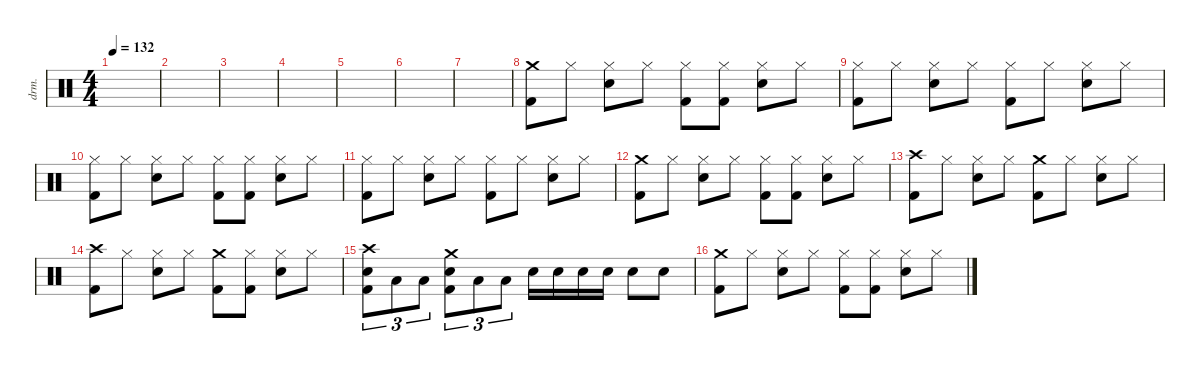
\defaultSystemsLayout 4
\hideDynamics
\bracketExtendMode nobrackets
\track ("敲击乐器" "drm.") {instrument percussion}
\staff {score}
\articulation defaults
\ts (4 4)
\tempo 132
\clef neutral
\ks c
|
|
|
|
|
|
|
("Crash medium (hit)" "Kick (hit) 2").8 "Hi-Hat (closed)".8 ("Hi-Hat (closed)" "Snare (hit) 2").8 "Hi-Hat (closed)".8 ("Hi-Hat (closed)" "Kick (hit) 2").8 ("Hi-Hat (closed)" "Kick (hit) 2").8 ("Hi-Hat (closed)" "Snare (hit) 2").8 "Hi-Hat (closed)".8 |
("Hi-Hat (closed)" "Kick (hit) 2").8 "Hi-Hat (closed)".8 ("Hi-Hat (closed)" "Snare (hit) 2").8 "Hi-Hat (closed)".8 ("Hi-Hat (closed)" "Kick (hit) 2").8 "Hi-Hat (closed)".8 ("Hi-Hat (closed)" "Snare (hit) 2").8 "Hi-Hat (closed)".8 |
("Hi-Hat (closed)" "Kick (hit) 2").8 "Hi-Hat (closed)".8 ("Hi-Hat (closed)" "Snare (hit) 2").8 "Hi-Hat (closed)".8 ("Hi-Hat (closed)" "Kick (hit) 2").8 ("Hi-Hat (closed)" "Kick (hit) 2").8 ("Hi-Hat (closed)" "Snare (hit) 2").8 "Hi-Hat (closed)".8 |
("Hi-Hat (closed)" "Kick (hit) 2").8 "Hi-Hat (closed)".8 ("Hi-Hat (closed)" "Snare (hit) 2").8 "Hi-Hat (closed)".8 ("Hi-Hat (closed)" "Kick (hit) 2").8 "Hi-Hat (closed)".8 ("Hi-Hat (closed)" "Snare (hit) 2").8 "Hi-Hat (closed)".8 |
("Crash medium (hit)" "Kick (hit) 2").8 "Hi-Hat (closed)".8 ("Hi-Hat (closed)" "Snare (hit) 2").8 "Hi-Hat (closed)".8 ("Hi-Hat (closed)" "Kick (hit) 2").8 ("Hi-Hat (closed)" "Kick (hit) 2").8 ("Hi-Hat (closed)" "Snare (hit) 2").8 "Hi-Hat (closed)".8 |
("Crash high (hit)" "Kick (hit) 2").8 "Hi-Hat (closed)".8 ("Hi-Hat (closed)" "Snare (hit) 2").8 "Hi-Hat (closed)".8 ("Crash medium (hit)" "Kick (hit) 2").8 "Hi-Hat (closed)".8 ("Hi-Hat (closed)" "Snare (hit) 2").8 "Hi-Hat (closed)".8 |
("Crash high (hit)" "Kick (hit) 2").8 "Hi-Hat (closed)".8 ("Hi-Hat (closed)" "Snare (hit) 2").8 "Hi-Hat (closed)".8 ("Crash medium (hit)" "Kick (hit) 2").8 ("Hi-Hat (closed)" "Kick (hit) 2").8 ("Hi-Hat (closed)" "Snare (hit) 2").8 "Hi-Hat (closed)".8 |
("Crash high (hit)" "Snare (hit) 2" "Kick (hit) 2").8{tu (3 2)} "Low Tom (hit)".8{tu (3 2)} "Low Tom (hit)".8{tu (3 2)} ("Crash medium (hit)" "Snare (hit) 2" "Kick (hit) 2").8{tu (3 2)} "Low Floor Tom (hit)".8{tu (3 2)} "Low Floor Tom (hit)".8{tu (3 2)} "Snare (hit) 2".16 "Snare (hit) 2".16 "Snare (hit) 2".16 "Snare (hit) 2".16 "Snare (hit) 2".8 "Snare (hit) 2".8 |
("Crash medium (hit)" "Kick (hit) 2").8 "Hi-Hat (closed)".8 ("Hi-Hat (closed)" "Snare (hit) 2").8 "Hi-Hat (closed)".8 ("Hi-Hat (closed)" "Kick (hit) 2").8 ("Hi-Hat (closed)" "Kick (hit) 2").8 ("Hi-Hat (closed)" "Snare (hit) 2").8 "Hi-Hat (closed)".8
